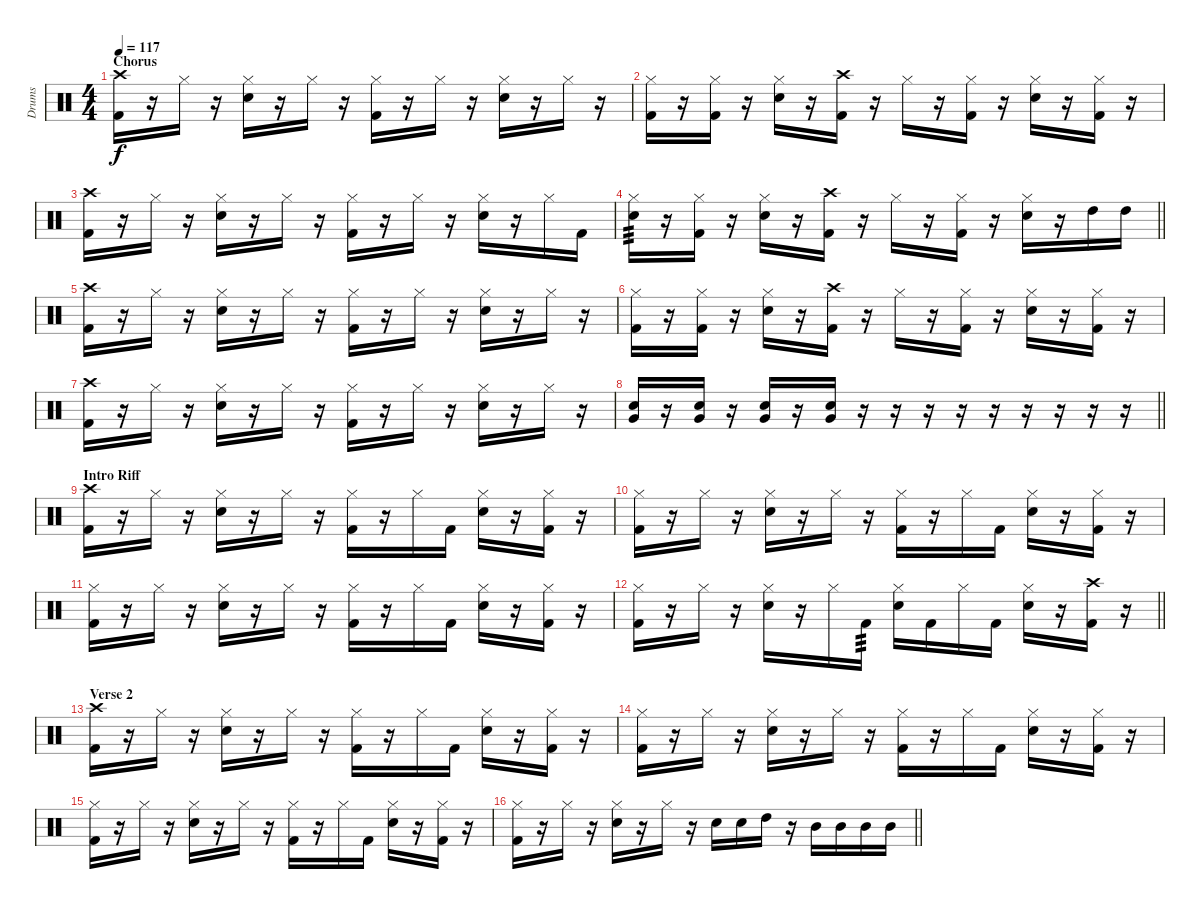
\track ("Drums" "Drums") {instrument percussion}
\staff {score}
\articulation defaults
\ts (4 4)
\section ("" "Chorus")
\tempo 117
\clef neutral
\ks c
("Crash high (hit)" "Kick (hit) 2").16{dy f} r.16 "Hi-Hat (closed)".16 r.16 ("Hi-Hat (closed)" "Electric Snare (hit)").16 r.16 "Hi-Hat (closed)".16 r.16 ("Hi-Hat (closed)" "Kick (hit) 2").16 r.16 "Hi-Hat (closed)".16 r.16 ("Hi-Hat (closed)" "Electric Snare (hit)").16 r.16 "Hi-Hat (closed)".16 r.16 |
("Hi-Hat (closed)" "Kick (hit) 2").16 r.16 ("Hi-Hat (closed)" "Kick (hit) 2").16 r.16 ("Hi-Hat (closed)" "Electric Snare (hit)").16 r.16 ("Crash high (hit)" "Kick (hit) 2").16 r.16 "Hi-Hat (closed)".16 r.16 ("Hi-Hat (closed)" "Kick (hit) 2").16 r.16 ("Hi-Hat (closed)" "Electric Snare (hit)").16 r.16 ("Hi-Hat (closed)" "Kick (hit) 2").16 r.16 |
("Crash high (hit)" "Kick (hit) 2").16 r.16 "Hi-Hat (closed)".16 r.16 ("Hi-Hat (closed)" "Electric Snare (hit)").16 r.16 "Hi-Hat (closed)".16 r.16 ("Hi-Hat (closed)" "Kick (hit) 2").16 r.16 "Hi-Hat (closed)".16 r.16 ("Hi-Hat (closed)" "Electric Snare (hit)").16 r.16 "Hi-Hat (closed)".16 "Kick (hit) 2".16 |
\barLineRight lightlight
("Hi-Hat (closed)" "Electric Snare (hit)").16{tp 3} r.16 ("Hi-Hat (closed)" "Kick (hit) 2").16 r.16 ("Hi-Hat (closed)" "Electric Snare (hit)").16 r.16 ("Crash high (hit)" "Kick (hit) 2").16 r.16 "Hi-Hat (closed)".16 r.16 ("Hi-Hat (closed)" "Kick (hit) 2").16 r.16 ("Hi-Hat (closed)" "Electric Snare (hit)").16 r.16 "High Tom (hit)".16 "High Tom (hit)".16 |
("Crash high (hit)" "Kick (hit) 2").16 r.16 "Hi-Hat (closed)".16 r.16 ("Hi-Hat (closed)" "Electric Snare (hit)").16 r.16 "Hi-Hat (closed)".16 r.16 ("Hi-Hat (closed)" "Kick (hit) 2").16 r.16 "Hi-Hat (closed)".16 r.16 ("Hi-Hat (closed)" "Electric Snare (hit)").16 r.16 "Hi-Hat (closed)".16 r.16 |
("Hi-Hat (closed)" "Kick (hit) 2").16 r.16 ("Hi-Hat (closed)" "Kick (hit) 2").16 r.16 ("Hi-Hat (closed)" "Electric Snare (hit)").16 r.16 ("Crash high (hit)" "Kick (hit) 2").16 r.16 "Hi-Hat (closed)".16 r.16 ("Hi-Hat (closed)" "Kick (hit) 2").16 r.16 ("Hi-Hat (closed)" "Electric Snare (hit)").16 r.16 ("Hi-Hat (closed)" "Kick (hit) 2").16 r.16 |
("Crash high (hit)" "Kick (hit) 2").16 r.16 "Hi-Hat (closed)".16 r.16 ("Hi-Hat (closed)" "Electric Snare (hit)").16 r.16 "Hi-Hat (closed)".16 r.16 ("Hi-Hat (closed)" "Kick (hit) 2").16 r.16 "Hi-Hat (closed)".16 r.16 ("Hi-Hat (closed)" "Electric Snare (hit)").16 r.16 "Hi-Hat (closed)".16 r.16 |
\barLineRight lightlight
("Very Low Tom (hit)" "Electric Snare (hit)").16 r.16 ("Very Low Tom (hit)" "Electric Snare (hit)").16 r.16 ("Very Low Tom (hit)" "Electric Snare (hit)").16 r.16 ("Very Low Tom (hit)" "Electric Snare (hit)").16 r.16 r.16 r.16 r.16 r.16 r.16 r.16 r.16 r.16 |
\section ("" "Intro Riff")
("Crash high (hit)" "Kick (hit) 2").16 r.16 "Hi-Hat (closed)".16 r.16 ("Hi-Hat (closed)" "Electric Snare (hit)").16 r.16 "Hi-Hat (closed)".16 r.16 ("Hi-Hat (closed)" "Kick (hit) 2").16 r.16 "Hi-Hat (closed)".16 "Kick (hit) 2".16 ("Hi-Hat (closed)" "Electric Snare (hit)").16 r.16 ("Hi-Hat (closed)" "Kick (hit) 2").16 r.16 |
("Hi-Hat (closed)" "Kick (hit) 2").16 r.16 "Hi-Hat (closed)".16 r.16 ("Hi-Hat (closed)" "Electric Snare (hit)").16 r.16 "Hi-Hat (closed)".16 r.16 ("Hi-Hat (closed)" "Kick (hit) 2").16 r.16 "Hi-Hat (closed)".16 "Kick (hit) 2".16 ("Hi-Hat (closed)" "Electric Snare (hit)").16 r.16 ("Hi-Hat (closed)" "Kick (hit) 2").16 r.16 |
("Hi-Hat (closed)" "Kick (hit) 2").16 r.16 "Hi-Hat (closed)".16 r.16 ("Hi-Hat (closed)" "Electric Snare (hit)").16 r.16 "Hi-Hat (closed)".16 r.16 ("Hi-Hat (closed)" "Kick (hit) 2").16 r.16 "Hi-Hat (closed)".16 "Kick (hit) 2".16 ("Hi-Hat (closed)" "Electric Snare (hit)").16 r.16 ("Hi-Hat (closed)" "Kick (hit) 2").16 r.16 |
\barLineRight lightlight
("Hi-Hat (closed)" "Kick (hit) 2").16 r.16 "Hi-Hat (closed)".16 r.16 ("Hi-Hat (closed)" "Electric Snare (hit)").16 r.16 "Hi-Hat (closed)".16 "Kick (hit) 2".16{tp 3} ("Hi-Hat (closed)" "Electric Snare (hit)").16 "Kick (hit) 2".16 "Hi-Hat (closed)".16 "Kick (hit) 2".16 ("Hi-Hat (closed)" "Electric Snare (hit)").16 r.16 ("Crash high (hit)" "Kick (hit) 2").16 r.16 |
\section ("" "Verse 2")
("Crash high (hit)" "Kick (hit) 2").16 r.16 "Hi-Hat (closed)".16 r.16 ("Hi-Hat (closed)" "Electric Snare (hit)").16 r.16 "Hi-Hat (closed)".16 r.16 ("Hi-Hat (closed)" "Kick (hit) 2").16 r.16 "Hi-Hat (closed)".16 "Kick (hit) 2".16 ("Hi-Hat (closed)" "Electric Snare (hit)").16 r.16 ("Hi-Hat (closed)" "Kick (hit) 2").16 r.16 |
("Hi-Hat (closed)" "Kick (hit) 2").16 r.16 "Hi-Hat (closed)".16 r.16 ("Hi-Hat (closed)" "Electric Snare (hit)").16 r.16 "Hi-Hat (closed)".16 r.16 ("Hi-Hat (closed)" "Kick (hit) 2").16 r.16 "Hi-Hat (closed)".16 "Kick (hit) 2".16 ("Hi-Hat (closed)" "Electric Snare (hit)").16 r.16 ("Hi-Hat (closed)" "Kick (hit) 2").16 r.16 |
("Hi-Hat (closed)" "Kick (hit) 2").16 r.16 "Hi-Hat (closed)".16 r.16 ("Hi-Hat (closed)" "Electric Snare (hit)").16 r.16 "Hi-Hat (closed)".16 r.16 ("Hi-Hat (closed)" "Kick (hit) 2").16 r.16 "Hi-Hat (closed)".16 "Kick (hit) 2".16 ("Hi-Hat (closed)" "Electric Snare (hit)").16 r.16 ("Hi-Hat (closed)" "Kick (hit) 2").16 r.16 |
\barLineRight lightlight
("Hi-Hat (closed)" "Kick (hit) 2").16 r.16 "Hi-Hat (closed)".16 r.16 ("Hi-Hat (closed)" "Electric Snare (hit)").16 r.16 "Hi-Hat (closed)".16 r.16 "Electric Snare (hit)".16 "Electric Snare (hit)".16 "High Tom (hit)".16 r.16 "Mid Tom (hit)".16 "Mid Tom (hit)".16 "Mid Tom (hit)".16 "Mid Tom (hit)".16
